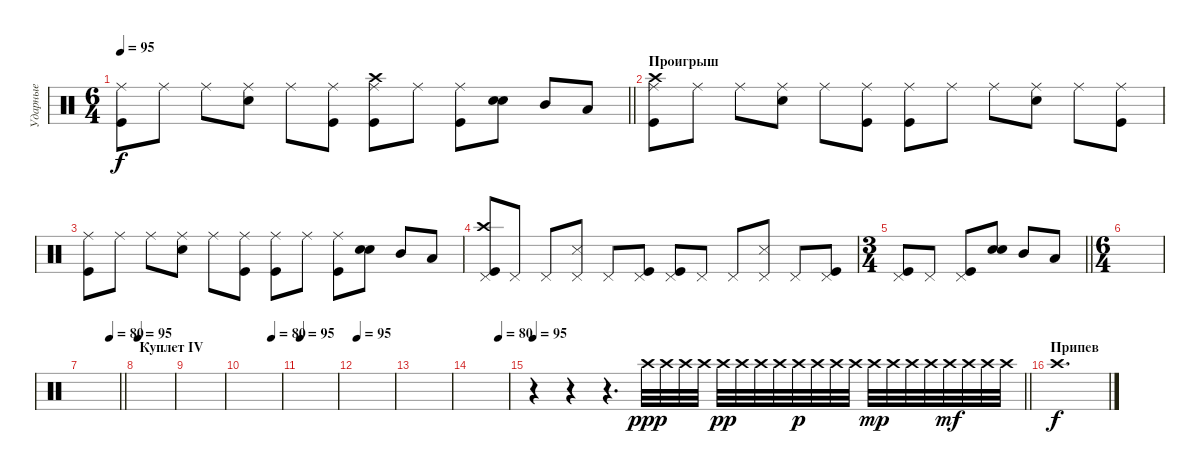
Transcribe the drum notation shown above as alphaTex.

\track ("Ударные" "Ударные") {instrument percussion}
\staff {score}
\articulation defaults
\ts (6 4)
\tempo 95
\clef neutral
\barLineRight lightlight
\ks c
("Kick (hit)" "Ride (middle)").8{dy f} "Ride (middle)".8 "Ride (middle)".8 ("Ride (middle)" "Snare (hit) 2").8 "Ride (middle)".8 ("Kick (hit)" "Ride (middle)").8 ("Kick (hit)" "Ride (middle)" "Crash high (hit)").8 "Ride (middle)".8 ("Kick (hit)" "Ride (middle)").8 ("Snare (hit) 2" "Snare (hit) 2").8{bd 120} "Mid Tom (hit)".8 "Low Tom (hit)".8 |
\section ("" "Проигрыш")
("Kick (hit)" "Ride (middle)" "Crash high (hit)").8 "Ride (middle)".8 "Ride (middle)".8 ("Ride (middle)" "Snare (hit) 2").8 "Ride (middle)".8 ("Kick (hit)" "Ride (middle)").8 ("Kick (hit)" "Ride (middle)").8 "Ride (middle)".8 "Ride (middle)".8 ("Ride (middle)" "Snare (hit) 2").8 "Ride (middle)".8 ("Kick (hit)" "Ride (middle)").8 |
("Kick (hit)" "Ride (middle)").8 "Ride (middle)".8 "Ride (middle)".8 ("Ride (middle)" "Snare (hit) 2").8 "Ride (middle)".8 ("Kick (hit)" "Ride (middle)").8 ("Kick (hit)" "Ride (middle)").8 "Ride (middle)".8 ("Kick (hit)" "Ride (middle)").8 ("Snare (hit) 2" "Snare (hit) 2").8{bd 120} "Mid Tom (hit)".8 "Low Tom (hit)".8 |
("Kick (hit)" "Pedal Hi-Hat (hit)" "Crash high (hit)").8 "Pedal Hi-Hat (hit)".8 "Pedal Hi-Hat (hit)".8 ("Pedal Hi-Hat (hit)" "Metronome (hit)").8 "Pedal Hi-Hat (hit)".8 ("Kick (hit)" "Pedal Hi-Hat (hit)").8 ("Kick (hit)" "Pedal Hi-Hat (hit)").8 "Pedal Hi-Hat (hit)".8 "Pedal Hi-Hat (hit)".8 ("Pedal Hi-Hat (hit)" "Metronome (hit)").8 "Pedal Hi-Hat (hit)".8 ("Kick (hit)" "Pedal Hi-Hat (hit)").8 |
\ts (3 4)
\barLineRight lightlight
("Kick (hit)" "Pedal Hi-Hat (hit)").8 "Pedal Hi-Hat (hit)".8 ("Kick (hit)" "Pedal Hi-Hat (hit)").8 ("Snare (hit) 2" "Snare (hit) 2").8{bd 120} "Mid Tom (hit)".8 "Low Tom (hit)".8 |
\ts (6 4)
|
\tempo (80 0.75)
\barLineRight lightlight
|
\section ("" "Куплет IV")
\tempo 95
|
|
\tempo (80 0.75)
|
\tempo 95
|
\tempo 95
|
|
\tempo (80 0.75)
|
\tempo 95
\barLineRight lightlight
r.4 r.4 r.4{d} "Crash high (hit)".32{dy ppp} "Crash high (hit)".32 "Crash high (hit)".32 "Crash high (hit)".32 "Crash high (hit)".32{dy pp} "Crash high (hit)".32 "Crash high (hit)".32 "Crash high (hit)".32 "Crash high (hit)".32{dy p} "Crash high (hit)".32 "Crash high (hit)".32 "Crash high (hit)".32 "Crash high (hit)".32{dy mp} "Crash high (hit)".32 "Crash high (hit)".32 "Crash high (hit)".32 "Crash high (hit)".32{dy mf} "Crash high (hit)".32 "Crash high (hit)".32 "Crash high (hit)".32 |
\section ("" "Припев")
"Crash high (hit)".1{d dy f}
